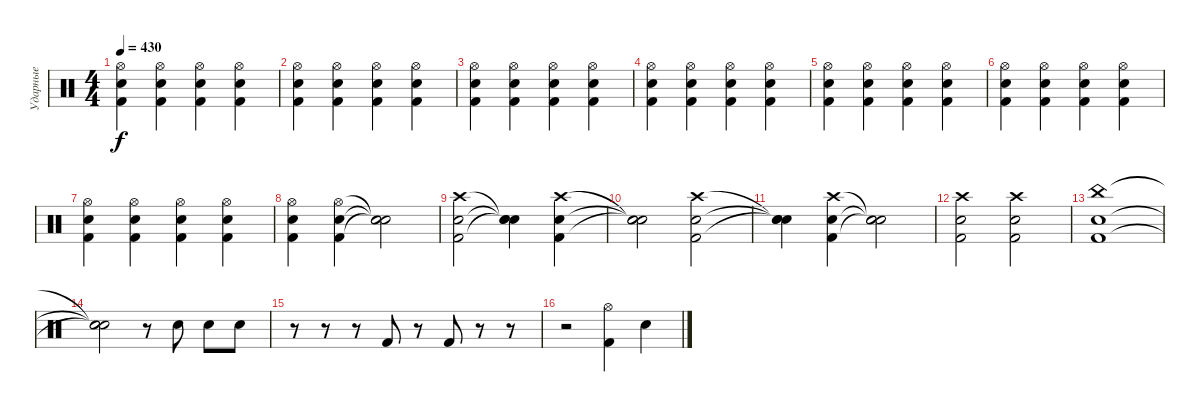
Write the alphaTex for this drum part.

\track ("Ударные" "Ударные") {instrument percussion}
\staff {score}
\articulation defaults
\ts (4 4)
\tempo 430
\clef neutral
\ks c
("Kick (hit) 2" "Electric Snare (hit)" "Hi-Hat (open)").4{dy f} ("Hi-Hat (open)" "Kick (hit) 2" "Electric Snare (hit)").4 ("Electric Snare (hit)" "Kick (hit) 2" "Hi-Hat (open)").4 ("Hi-Hat (open)" "Kick (hit) 2" "Electric Snare (hit)").4 |
("Kick (hit) 2" "Electric Snare (hit)" "Hi-Hat (open)").4 ("Hi-Hat (open)" "Kick (hit) 2" "Electric Snare (hit)").4 ("Electric Snare (hit)" "Kick (hit) 2" "Hi-Hat (open)").4 ("Hi-Hat (open)" "Kick (hit) 2" "Electric Snare (hit)").4 |
("Kick (hit) 2" "Electric Snare (hit)" "Hi-Hat (open)").4 ("Hi-Hat (open)" "Kick (hit) 2" "Electric Snare (hit)").4 ("Electric Snare (hit)" "Kick (hit) 2" "Hi-Hat (open)").4 ("Hi-Hat (open)" "Kick (hit) 2" "Electric Snare (hit)").4 |
("Kick (hit) 2" "Electric Snare (hit)" "Hi-Hat (open)").4 ("Hi-Hat (open)" "Kick (hit) 2" "Electric Snare (hit)").4 ("Electric Snare (hit)" "Kick (hit) 2" "Hi-Hat (open)").4 ("Hi-Hat (open)" "Kick (hit) 2" "Electric Snare (hit)").4 |
("Kick (hit) 2" "Electric Snare (hit)" "Hi-Hat (open)").4 ("Hi-Hat (open)" "Kick (hit) 2" "Electric Snare (hit)").4 ("Electric Snare (hit)" "Kick (hit) 2" "Hi-Hat (open)").4 ("Hi-Hat (open)" "Kick (hit) 2" "Electric Snare (hit)").4 |
("Kick (hit) 2" "Electric Snare (hit)" "Hi-Hat (open)").4 ("Hi-Hat (open)" "Kick (hit) 2" "Electric Snare (hit)").4 ("Electric Snare (hit)" "Kick (hit) 2" "Hi-Hat (open)").4 ("Hi-Hat (open)" "Kick (hit) 2" "Electric Snare (hit)").4 |
("Kick (hit) 2" "Electric Snare (hit)" "Hi-Hat (open)").4 ("Hi-Hat (open)" "Kick (hit) 2" "Electric Snare (hit)").4 ("Electric Snare (hit)" "Kick (hit) 2" "Hi-Hat (open)").4 ("Hi-Hat (open)" "Kick (hit) 2" "Electric Snare (hit)").4 |
("Kick (hit) 2" "Electric Snare (hit)" "Hi-Hat (open)").4 ("Hi-Hat (open)" "Kick (hit) 2" "Electric Snare (hit)").4 ("Snare (hit)"{t} "Snare (hit)"{t} "Snare (hit)"{t}).2 |
("Electric Snare (hit)" "Kick (hit) 2" "Crash high (hit)").2 ("Snare (hit)"{t} "Snare (hit)"{t} "Snare (hit)"{t}).4 ("Crash high (hit)" "Kick (hit) 2" "Electric Snare (hit)").4 |
("Snare (hit)"{t} "Snare (hit)"{t} "Snare (hit)"{t}).2 ("Kick (hit) 2" "Electric Snare (hit)" "Crash high (hit)").2 |
("Snare (hit)"{t} "Snare (hit)"{t} "Snare (hit)"{t}).4 ("Crash high (hit)" "Kick (hit) 2" "Electric Snare (hit)").4 ("Snare (hit)"{t} "Snare (hit)"{t} "Snare (hit)"{t}).2 |
("Electric Snare (hit)" "Kick (hit) 2" "Crash high (hit)").2 ("Crash high (hit)" "Kick (hit) 2" "Electric Snare (hit)").2 |
("Electric Snare (hit)" "Kick (hit) 2" "China (hit)").1 |
("Snare (hit)"{t} "Snare (hit)"{t} "Snare (hit)"{t}).2 r.8 "Electric Snare (hit)".8 "Electric Snare (hit)".8 "Electric Snare (hit)".8 |
r.8 r.8 r.8 "Kick (hit) 2".8 r.8 "Kick (hit) 2".8 r.8 r.8 |
r.2 ("Kick (hit) 2" "Hi-Hat (open)").4 "Electric Snare (hit)".4
